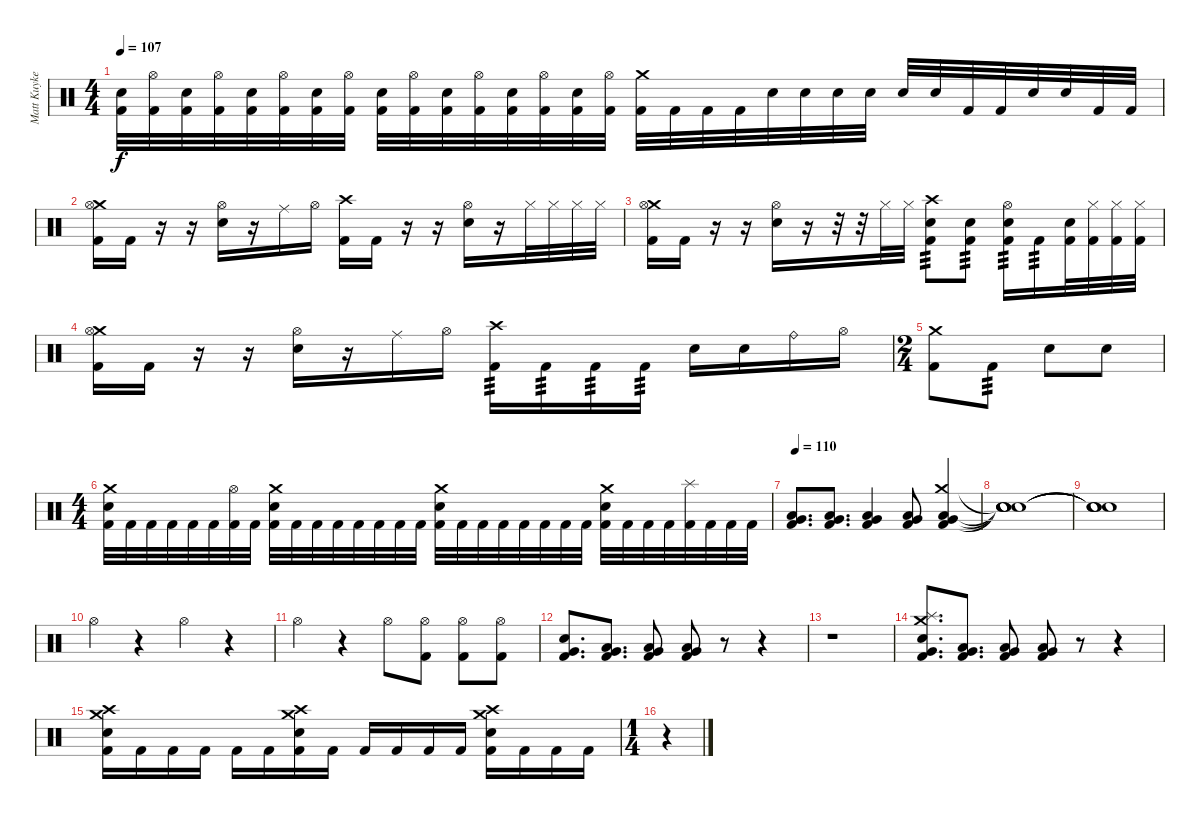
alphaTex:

\track ("Matt Kuykendall" "Matt Kuyke") {instrument percussion}
\staff {score}
\articulation defaults
\ts (4 4)
\tempo 107
\clef neutral
\ks c
("Electric Snare (hit)" "Kick (hit) 2").32{dy f} ("Hi-Hat (open)" "Kick (hit) 2").32 ("Electric Snare (hit)" "Kick (hit) 2").32 ("Hi-Hat (open)" "Kick (hit) 2").32 ("Electric Snare (hit)" "Kick (hit) 2").32 ("Hi-Hat (open)" "Kick (hit) 2").32 ("Electric Snare (hit)" "Kick (hit) 2").32 ("Hi-Hat (open)" "Kick (hit) 2").32 ("Electric Snare (hit)" "Kick (hit) 2").32 ("Hi-Hat (open)" "Kick (hit) 2").32 ("Electric Snare (hit)" "Kick (hit) 2").32 ("Hi-Hat (open)" "Kick (hit) 2").32 ("Electric Snare (hit)" "Kick (hit) 2").32 ("Hi-Hat (open)" "Kick (hit) 2").32 ("Electric Snare (hit)" "Kick (hit) 2").32 ("Hi-Hat (open)" "Kick (hit) 2").32 ("Crash medium (hit)" "Kick (hit) 2").32 "Kick (hit) 2".32 "Kick (hit) 2".32 "Kick (hit) 2".32 "Electric Snare (hit)".32 "Electric Snare (hit)".32 "Electric Snare (hit)".32 "Electric Snare (hit)".32 "Electric Snare (hit)".32 "Electric Snare (hit)".32 "Kick (hit) 2".32 "Kick (hit) 2".32 "Electric Snare (hit)".32 "Electric Snare (hit)".32 "Kick (hit) 2".32 "Kick (hit) 2".32 |
("Crash medium (hit)" "Hi-Hat (open)" "Kick (hit) 2").16 "Kick (hit) 2".16 r.16 r.16 ("Hi-Hat (open)" "Electric Snare (hit)").16 r.16 "Ride (middle)".16 "Hi-Hat (open)".16 ("Crash high (hit)" "Kick (hit) 2").16 "Kick (hit) 2".16 r.16 r.16 ("Hi-Hat (open)" "Electric Snare (hit)").16 r.16 "Hi-Hat (closed)".32 "Hi-Hat (closed)".32 "Hi-Hat (closed)".32 "Hi-Hat (closed)".32 |
("Crash medium (hit)" "Hi-Hat (open)" "Kick (hit) 2").16 "Kick (hit) 2".16 r.16 r.16 ("Hi-Hat (open)" "Electric Snare (hit)").16 r.16 r.32 r.32 "Hi-Hat (closed)".32 "Hi-Hat (closed)".32 ("Crash high (hit)" "Electric Snare (hit)" "Kick (hit) 2").8{tp 3} ("Electric Snare (hit)" "Kick (hit) 2").8{tp 3} ("Hi-Hat (open)" "Electric Snare (hit)" "Kick (hit) 2").16{tp 3} "Kick (hit) 2".16{tp 3} ("Electric Snare (hit)" "Kick (hit) 2").32 ("Hi-Hat (closed)" "Kick (hit) 2").32 ("Hi-Hat (closed)" "Kick (hit) 2").32 ("Hi-Hat (closed)" "Kick (hit) 2").32 |
("Crash medium (hit)" "Hi-Hat (open)" "Kick (hit) 2").16 "Kick (hit) 2".16 r.16 r.16 ("Hi-Hat (open)" "Electric Snare (hit)").16 r.16 "Ride (middle)".16 "Hi-Hat (open)".16 ("Crash high (hit)" "Kick (hit) 2").16{tp 3} "Kick (hit) 2".16{tp 3} "Kick (hit) 2".16{tp 3} "Kick (hit) 2".16{tp 3} "Electric Snare (hit)".16 "Electric Snare (hit)".16 "Ride (bell)".16 "Hi-Hat (open)".16 |
\ts (2 4)
("Crash medium (hit)" "Kick (hit) 2").8 "Kick (hit) 2".8{tp 3} "Electric Snare (hit)".8 "Electric Snare (hit)".8 |
\ts (4 4)
("Crash medium (hit)" "Electric Snare (hit)" "Kick (hit) 2").32 "Kick (hit) 2".32 "Kick (hit) 2".32 "Kick (hit) 2".32 "Kick (hit) 2".32 "Kick (hit) 2".32 ("Hi-Hat (open)" "Kick (hit) 2").32 "Kick (hit) 2".32 ("Crash medium (hit)" "Electric Snare (hit)" "Kick (hit) 2").32 "Kick (hit) 2".32 "Kick (hit) 2".32 "Kick (hit) 2".32 "Kick (hit) 2".32 "Kick (hit) 2".32 "Kick (hit) 2".32 "Kick (hit) 2".32 ("Crash medium (hit)" "Electric Snare (hit)" "Kick (hit) 2").32 "Kick (hit) 2".32 "Kick (hit) 2".32 "Kick (hit) 2".32 "Kick (hit) 2".32 "Kick (hit) 2".32 "Kick (hit) 2".32 "Kick (hit) 2".32 ("Crash medium (hit)" "Electric Snare (hit)" "Kick (hit) 2").32 "Kick (hit) 2".32 "Kick (hit) 2".32 "Kick (hit) 2".32 ("Splash (hit)" "Kick (hit) 2").32 "Kick (hit) 2".32 "Kick (hit) 2".32 "Kick (hit) 2".32 |
\tempo 110
("Very Low Tom (hit)" "Low Floor Tom (hit)" "Kick (hit) 2").8{d} ("Very Low Tom (hit)" "Low Floor Tom (hit)" "Kick (hit) 2").8{d} ("Very Low Tom (hit)" "Low Floor Tom (hit)" "Kick (hit) 2").4 ("Very Low Tom (hit)" "Low Floor Tom (hit)" "Kick (hit) 2").8 ("Crash medium (hit)" "Very Low Tom (hit)" "Low Floor Tom (hit)" "Kick (hit) 2").4 |
("Snare (hit)"{t} "Snare (hit)"{t} "Snare (hit)"{t} "Snare (hit)"{t}).1 |
("Snare (hit)"{t} "Snare (hit)"{t} "Snare (hit)"{t} "Snare (hit)"{t}).1 |
"Hi-Hat (open)".4 r.4 "Hi-Hat (open)".4 r.4 |
"Hi-Hat (open)".4 r.4 "Hi-Hat (open)".8 ("Hi-Hat (open)" "Kick (hit) 2").8 ("Hi-Hat (open)" "Kick (hit) 2").8 ("Hi-Hat (open)" "Kick (hit) 2").8 |
("Electric Snare (hit)" "Very Low Tom (hit)" "Kick (hit) 2").8{d} ("Very Low Tom (hit)" "Low Floor Tom (hit)" "Kick (hit) 2").8{d} ("Very Low Tom (hit)" "Low Floor Tom (hit)" "Kick (hit) 2").8 ("Very Low Tom (hit)" "Low Floor Tom (hit)" "Kick (hit) 2").8 r.8 r.4 |
r.1 |
("Splash (hit)" "Crash medium (hit)" "Electric Snare (hit)" "Very Low Tom (hit)" "Kick (hit) 2").8{d} ("Very Low Tom (hit)" "Low Floor Tom (hit)" "Kick (hit) 2").8{d} ("Very Low Tom (hit)" "Low Floor Tom (hit)" "Kick (hit) 2").8 ("Very Low Tom (hit)" "Low Floor Tom (hit)" "Kick (hit) 2").8 r.8 r.4 |
("Crash medium (hit)" "Crash high (hit)" "Electric Snare (hit)" "Kick (hit) 2").16 "Kick (hit) 2".16 "Kick (hit) 2".16 "Kick (hit) 2".16 "Kick (hit) 2".16 "Kick (hit) 2".16 ("Crash medium (hit)" "Crash high (hit)" "Electric Snare (hit)" "Kick (hit) 2").16 "Kick (hit) 2".16 "Kick (hit) 2".16 "Kick (hit) 2".16 "Kick (hit) 2".16 "Kick (hit) 2".16 ("Crash medium (hit)" "Crash high (hit)" "Electric Snare (hit)" "Kick (hit) 2").16 "Kick (hit) 2".16 "Kick (hit) 2".16 "Kick (hit) 2".16 |
\ts (1 4)
r.4
